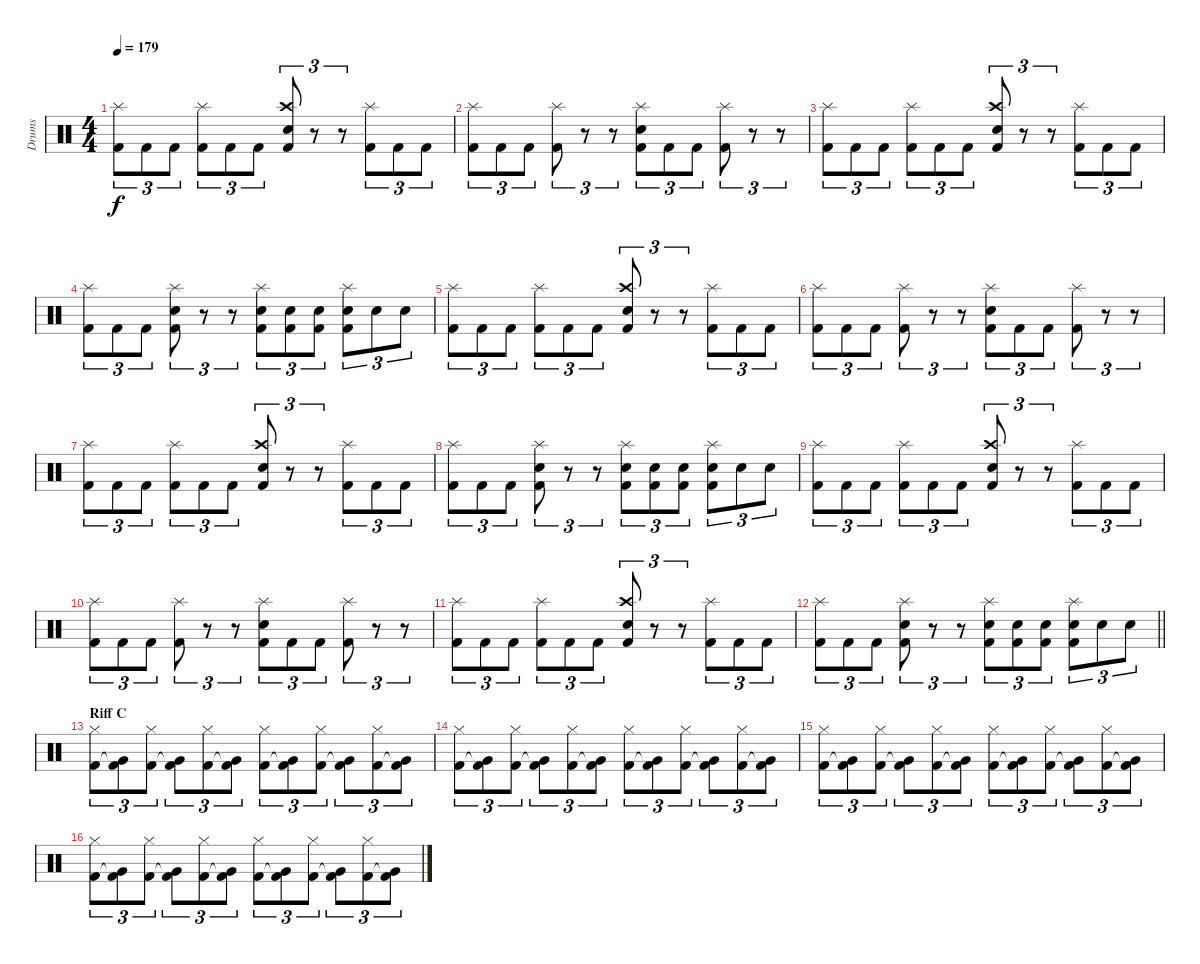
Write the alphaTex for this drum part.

\track ("Drums" "Drums") {instrument percussion}
\staff {score}
\articulation defaults
\ts (4 4)
\tempo 179
\clef neutral
\ks c
("Splash (hit)" "Kick (hit) 2").8{tu (3 2) dy f} "Kick (hit) 2".8{tu (3 2)} "Kick (hit) 2".8{tu (3 2)} ("Splash (hit)" "Kick (hit) 2").8{tu (3 2)} "Kick (hit) 2".8{tu (3 2)} "Kick (hit) 2".8{tu (3 2)} ("Crash high (hit)" "Electric Snare (hit)" "Kick (hit) 2").8{tu (3 2)} r.8{tu (3 2)} r.8{tu (3 2)} ("Splash (hit)" "Kick (hit) 2").8{tu (3 2)} "Kick (hit) 2".8{tu (3 2)} "Kick (hit) 2".8{tu (3 2)} |
("Splash (hit)" "Kick (hit) 2").8{tu (3 2)} "Kick (hit) 2".8{tu (3 2)} "Kick (hit) 2".8{tu (3 2)} ("Splash (hit)" "Kick (hit) 2").8{tu (3 2)} r.8{tu (3 2)} r.8{tu (3 2)} ("Splash (hit)" "Electric Snare (hit)" "Kick (hit) 2").8{tu (3 2)} "Kick (hit) 2".8{tu (3 2)} "Kick (hit) 2".8{tu (3 2)} ("Splash (hit)" "Kick (hit) 2").8{tu (3 2)} r.8{tu (3 2)} r.8{tu (3 2)} |
("Splash (hit)" "Kick (hit) 2").8{tu (3 2)} "Kick (hit) 2".8{tu (3 2)} "Kick (hit) 2".8{tu (3 2)} ("Splash (hit)" "Kick (hit) 2").8{tu (3 2)} "Kick (hit) 2".8{tu (3 2)} "Kick (hit) 2".8{tu (3 2)} ("Crash high (hit)" "Electric Snare (hit)" "Kick (hit) 2").8{tu (3 2)} r.8{tu (3 2)} r.8{tu (3 2)} ("Splash (hit)" "Kick (hit) 2").8{tu (3 2)} "Kick (hit) 2".8{tu (3 2)} "Kick (hit) 2".8{tu (3 2)} |
("Splash (hit)" "Kick (hit) 2").8{tu (3 2)} "Kick (hit) 2".8{tu (3 2)} "Kick (hit) 2".8{tu (3 2)} ("Splash (hit)" "Electric Snare (hit)" "Kick (hit) 2").8{tu (3 2)} r.8{tu (3 2)} r.8{tu (3 2)} ("Splash (hit)" "Electric Snare (hit)" "Kick (hit) 2").8{tu (3 2)} ("Electric Snare (hit)" "Kick (hit) 2").8{tu (3 2)} ("Electric Snare (hit)" "Kick (hit) 2").8{tu (3 2)} ("Splash (hit)" "Electric Snare (hit)" "Kick (hit) 2").8{tu (3 2)} "Electric Snare (hit)".8{tu (3 2)} "Electric Snare (hit)".8{tu (3 2)} |
("Splash (hit)" "Kick (hit) 2").8{tu (3 2)} "Kick (hit) 2".8{tu (3 2)} "Kick (hit) 2".8{tu (3 2)} ("Splash (hit)" "Kick (hit) 2").8{tu (3 2)} "Kick (hit) 2".8{tu (3 2)} "Kick (hit) 2".8{tu (3 2)} ("Crash high (hit)" "Electric Snare (hit)" "Kick (hit) 2").8{tu (3 2)} r.8{tu (3 2)} r.8{tu (3 2)} ("Splash (hit)" "Kick (hit) 2").8{tu (3 2)} "Kick (hit) 2".8{tu (3 2)} "Kick (hit) 2".8{tu (3 2)} |
("Splash (hit)" "Kick (hit) 2").8{tu (3 2)} "Kick (hit) 2".8{tu (3 2)} "Kick (hit) 2".8{tu (3 2)} ("Splash (hit)" "Kick (hit) 2").8{tu (3 2)} r.8{tu (3 2)} r.8{tu (3 2)} ("Splash (hit)" "Electric Snare (hit)" "Kick (hit) 2").8{tu (3 2)} "Kick (hit) 2".8{tu (3 2)} "Kick (hit) 2".8{tu (3 2)} ("Splash (hit)" "Kick (hit) 2").8{tu (3 2)} r.8{tu (3 2)} r.8{tu (3 2)} |
("Splash (hit)" "Kick (hit) 2").8{tu (3 2)} "Kick (hit) 2".8{tu (3 2)} "Kick (hit) 2".8{tu (3 2)} ("Splash (hit)" "Kick (hit) 2").8{tu (3 2)} "Kick (hit) 2".8{tu (3 2)} "Kick (hit) 2".8{tu (3 2)} ("Crash high (hit)" "Electric Snare (hit)" "Kick (hit) 2").8{tu (3 2)} r.8{tu (3 2)} r.8{tu (3 2)} ("Splash (hit)" "Kick (hit) 2").8{tu (3 2)} "Kick (hit) 2".8{tu (3 2)} "Kick (hit) 2".8{tu (3 2)} |
("Splash (hit)" "Kick (hit) 2").8{tu (3 2)} "Kick (hit) 2".8{tu (3 2)} "Kick (hit) 2".8{tu (3 2)} ("Splash (hit)" "Electric Snare (hit)" "Kick (hit) 2").8{tu (3 2)} r.8{tu (3 2)} r.8{tu (3 2)} ("Splash (hit)" "Electric Snare (hit)" "Kick (hit) 2").8{tu (3 2)} ("Electric Snare (hit)" "Kick (hit) 2").8{tu (3 2)} ("Electric Snare (hit)" "Kick (hit) 2").8{tu (3 2)} ("Splash (hit)" "Electric Snare (hit)" "Kick (hit) 2").8{tu (3 2)} "Electric Snare (hit)".8{tu (3 2)} "Electric Snare (hit)".8{tu (3 2)} |
("Splash (hit)" "Kick (hit) 2").8{tu (3 2)} "Kick (hit) 2".8{tu (3 2)} "Kick (hit) 2".8{tu (3 2)} ("Splash (hit)" "Kick (hit) 2").8{tu (3 2)} "Kick (hit) 2".8{tu (3 2)} "Kick (hit) 2".8{tu (3 2)} ("Crash high (hit)" "Electric Snare (hit)" "Kick (hit) 2").8{tu (3 2)} r.8{tu (3 2)} r.8{tu (3 2)} ("Splash (hit)" "Kick (hit) 2").8{tu (3 2)} "Kick (hit) 2".8{tu (3 2)} "Kick (hit) 2".8{tu (3 2)} |
("Splash (hit)" "Kick (hit) 2").8{tu (3 2)} "Kick (hit) 2".8{tu (3 2)} "Kick (hit) 2".8{tu (3 2)} ("Splash (hit)" "Kick (hit) 2").8{tu (3 2)} r.8{tu (3 2)} r.8{tu (3 2)} ("Splash (hit)" "Electric Snare (hit)" "Kick (hit) 2").8{tu (3 2)} "Kick (hit) 2".8{tu (3 2)} "Kick (hit) 2".8{tu (3 2)} ("Splash (hit)" "Kick (hit) 2").8{tu (3 2)} r.8{tu (3 2)} r.8{tu (3 2)} |
("Splash (hit)" "Kick (hit) 2").8{tu (3 2)} "Kick (hit) 2".8{tu (3 2)} "Kick (hit) 2".8{tu (3 2)} ("Splash (hit)" "Kick (hit) 2").8{tu (3 2)} "Kick (hit) 2".8{tu (3 2)} "Kick (hit) 2".8{tu (3 2)} ("Crash high (hit)" "Electric Snare (hit)" "Kick (hit) 2").8{tu (3 2)} r.8{tu (3 2)} r.8{tu (3 2)} ("Splash (hit)" "Kick (hit) 2").8{tu (3 2)} "Kick (hit) 2".8{tu (3 2)} "Kick (hit) 2".8{tu (3 2)} |
\barLineRight lightlight
("Splash (hit)" "Kick (hit) 2").8{tu (3 2)} "Kick (hit) 2".8{tu (3 2)} "Kick (hit) 2".8{tu (3 2)} ("Splash (hit)" "Electric Snare (hit)" "Kick (hit) 2").8{tu (3 2)} r.8{tu (3 2)} r.8{tu (3 2)} ("Splash (hit)" "Electric Snare (hit)" "Kick (hit) 2").8{tu (3 2)} ("Electric Snare (hit)" "Kick (hit) 2").8{tu (3 2)} ("Electric Snare (hit)" "Kick (hit) 2").8{tu (3 2)} ("Splash (hit)" "Electric Snare (hit)" "Kick (hit) 2").8{tu (3 2)} "Electric Snare (hit)".8{tu (3 2)} "Electric Snare (hit)".8{tu (3 2)} |
\section ("" "Riff C")
("Hi-Hat (closed)" "Kick (hit) 2").8{tu (3 2)} ("Very Low Tom (hit)" "Kick (hit) 2"{t}).8{tu (3 2)} ("Hi-Hat (closed)" "Kick (hit) 2").8{tu (3 2)} ("Very Low Tom (hit)" "Kick (hit) 2"{t}).8{tu (3 2)} ("Hi-Hat (closed)" "Kick (hit) 2").8{tu (3 2)} ("Very Low Tom (hit)" "Kick (hit) 2"{t}).8{tu (3 2)} ("Hi-Hat (closed)" "Kick (hit) 2").8{tu (3 2)} ("Very Low Tom (hit)" "Kick (hit) 2"{t}).8{tu (3 2)} ("Hi-Hat (closed)" "Kick (hit) 2").8{tu (3 2)} ("Very Low Tom (hit)" "Kick (hit) 2"{t}).8{tu (3 2)} ("Hi-Hat (closed)" "Kick (hit) 2").8{tu (3 2)} ("Very Low Tom (hit)" "Kick (hit) 2"{t}).8{tu (3 2)} |
("Hi-Hat (closed)" "Kick (hit) 2").8{tu (3 2)} ("Very Low Tom (hit)" "Kick (hit) 2"{t}).8{tu (3 2)} ("Hi-Hat (closed)" "Kick (hit) 2").8{tu (3 2)} ("Very Low Tom (hit)" "Kick (hit) 2"{t}).8{tu (3 2)} ("Hi-Hat (closed)" "Kick (hit) 2").8{tu (3 2)} ("Very Low Tom (hit)" "Kick (hit) 2"{t}).8{tu (3 2)} ("Hi-Hat (closed)" "Kick (hit) 2").8{tu (3 2)} ("Very Low Tom (hit)" "Kick (hit) 2"{t}).8{tu (3 2)} ("Hi-Hat (closed)" "Kick (hit) 2").8{tu (3 2)} ("Very Low Tom (hit)" "Kick (hit) 2"{t}).8{tu (3 2)} ("Hi-Hat (closed)" "Kick (hit) 2").8{tu (3 2)} ("Very Low Tom (hit)" "Kick (hit) 2"{t}).8{tu (3 2)} |
("Hi-Hat (closed)" "Kick (hit) 2").8{tu (3 2)} ("Very Low Tom (hit)" "Kick (hit) 2"{t}).8{tu (3 2)} ("Hi-Hat (closed)" "Kick (hit) 2").8{tu (3 2)} ("Very Low Tom (hit)" "Kick (hit) 2"{t}).8{tu (3 2)} ("Hi-Hat (closed)" "Kick (hit) 2").8{tu (3 2)} ("Very Low Tom (hit)" "Kick (hit) 2"{t}).8{tu (3 2)} ("Hi-Hat (closed)" "Kick (hit) 2").8{tu (3 2)} ("Very Low Tom (hit)" "Kick (hit) 2"{t}).8{tu (3 2)} ("Hi-Hat (closed)" "Kick (hit) 2").8{tu (3 2)} ("Very Low Tom (hit)" "Kick (hit) 2"{t}).8{tu (3 2)} ("Hi-Hat (closed)" "Kick (hit) 2").8{tu (3 2)} ("Very Low Tom (hit)" "Kick (hit) 2"{t}).8{tu (3 2)} |
("Hi-Hat (closed)" "Kick (hit) 2").8{tu (3 2)} ("Very Low Tom (hit)" "Kick (hit) 2"{t}).8{tu (3 2)} ("Hi-Hat (closed)" "Kick (hit) 2").8{tu (3 2)} ("Very Low Tom (hit)" "Kick (hit) 2"{t}).8{tu (3 2)} ("Hi-Hat (closed)" "Kick (hit) 2").8{tu (3 2)} ("Very Low Tom (hit)" "Kick (hit) 2"{t}).8{tu (3 2)} ("Hi-Hat (closed)" "Kick (hit) 2").8{tu (3 2)} ("Very Low Tom (hit)" "Kick (hit) 2"{t}).8{tu (3 2)} ("Hi-Hat (closed)" "Kick (hit) 2").8{tu (3 2)} ("Very Low Tom (hit)" "Kick (hit) 2"{t}).8{tu (3 2)} ("Hi-Hat (closed)" "Kick (hit) 2").8{tu (3 2)} ("Very Low Tom (hit)" "Kick (hit) 2"{t}).8{tu (3 2)}
